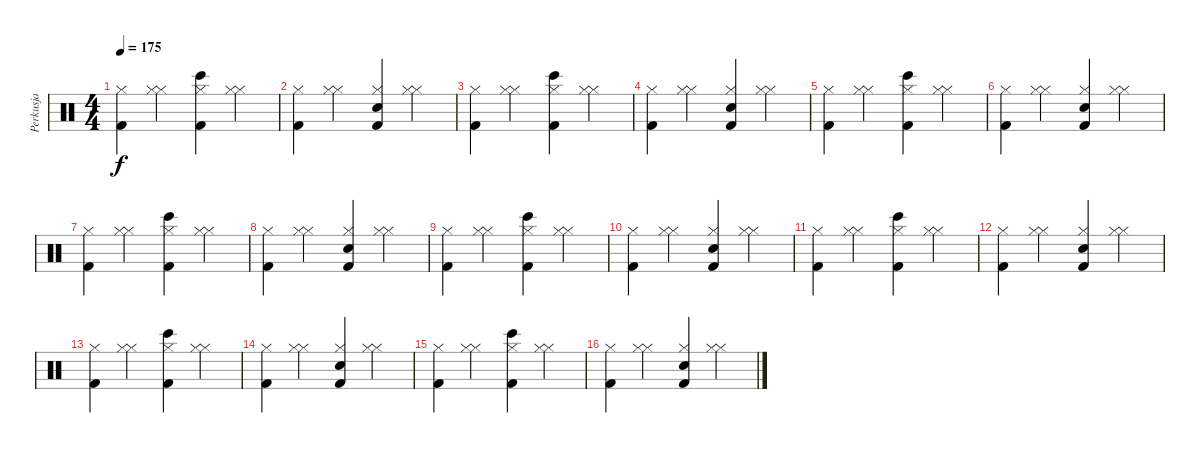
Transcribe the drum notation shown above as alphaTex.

\track ("Perkusja" "Perkusja") {instrument percussion}
\staff {score}
\articulation defaults
\ts (4 4)
\tempo 175
\clef neutral
\ks c
("Kick (hit) 2" "Hi-Hat (closed)").4{dy f} ("Hi-Hat (closed)" "Hi-Hat (closed)").4 ("Bongo High (hit)" "Kick (hit) 2" "Hi-Hat (closed)").4 ("Hi-Hat (closed)" "Hi-Hat (closed)").4 |
("Kick (hit) 2" "Hi-Hat (closed)").4 ("Hi-Hat (closed)" "Hi-Hat (closed)").4 ("Snare (hit) 2" "Kick (hit) 2" "Hi-Hat (closed)").4 ("Hi-Hat (closed)" "Hi-Hat (closed)").4 |
("Kick (hit) 2" "Hi-Hat (closed)").4 ("Hi-Hat (closed)" "Hi-Hat (closed)").4 ("Bongo High (hit)" "Kick (hit) 2" "Hi-Hat (closed)").4 ("Hi-Hat (closed)" "Hi-Hat (closed)").4 |
("Kick (hit) 2" "Hi-Hat (closed)").4 ("Hi-Hat (closed)" "Hi-Hat (closed)").4 ("Snare (hit) 2" "Kick (hit) 2" "Hi-Hat (closed)").4 ("Hi-Hat (closed)" "Hi-Hat (closed)").4 |
("Kick (hit) 2" "Hi-Hat (closed)").4 ("Hi-Hat (closed)" "Hi-Hat (closed)").4 ("Bongo High (hit)" "Kick (hit) 2" "Hi-Hat (closed)").4 ("Hi-Hat (closed)" "Hi-Hat (closed)").4 |
("Kick (hit) 2" "Hi-Hat (closed)").4 ("Hi-Hat (closed)" "Hi-Hat (closed)").4 ("Snare (hit) 2" "Kick (hit) 2" "Hi-Hat (closed)").4 ("Hi-Hat (closed)" "Hi-Hat (closed)").4 |
("Kick (hit) 2" "Hi-Hat (closed)").4 ("Hi-Hat (closed)" "Hi-Hat (closed)").4 ("Bongo High (hit)" "Kick (hit) 2" "Hi-Hat (closed)").4 ("Hi-Hat (closed)" "Hi-Hat (closed)").4 |
("Kick (hit) 2" "Hi-Hat (closed)").4 ("Hi-Hat (closed)" "Hi-Hat (closed)").4 ("Snare (hit) 2" "Kick (hit) 2" "Hi-Hat (closed)").4 ("Hi-Hat (closed)" "Hi-Hat (closed)").4 |
("Kick (hit) 2" "Hi-Hat (closed)").4 ("Hi-Hat (closed)" "Hi-Hat (closed)").4 ("Bongo High (hit)" "Kick (hit) 2" "Hi-Hat (closed)").4 ("Hi-Hat (closed)" "Hi-Hat (closed)").4 |
("Kick (hit) 2" "Hi-Hat (closed)").4 ("Hi-Hat (closed)" "Hi-Hat (closed)").4 ("Snare (hit) 2" "Kick (hit) 2" "Hi-Hat (closed)").4 ("Hi-Hat (closed)" "Hi-Hat (closed)").4 |
("Kick (hit) 2" "Hi-Hat (closed)").4 ("Hi-Hat (closed)" "Hi-Hat (closed)").4 ("Bongo High (hit)" "Kick (hit) 2" "Hi-Hat (closed)").4 ("Hi-Hat (closed)" "Hi-Hat (closed)").4 |
("Kick (hit) 2" "Hi-Hat (closed)").4 ("Hi-Hat (closed)" "Hi-Hat (closed)").4 ("Snare (hit) 2" "Kick (hit) 2" "Hi-Hat (closed)").4 ("Hi-Hat (closed)" "Hi-Hat (closed)").4 |
("Kick (hit) 2" "Hi-Hat (closed)").4 ("Hi-Hat (closed)" "Hi-Hat (closed)").4 ("Bongo High (hit)" "Kick (hit) 2" "Hi-Hat (closed)").4 ("Hi-Hat (closed)" "Hi-Hat (closed)").4 |
("Kick (hit) 2" "Hi-Hat (closed)").4 ("Hi-Hat (closed)" "Hi-Hat (closed)").4 ("Snare (hit) 2" "Kick (hit) 2" "Hi-Hat (closed)").4 ("Hi-Hat (closed)" "Hi-Hat (closed)").4 |
("Kick (hit) 2" "Hi-Hat (closed)").4 ("Hi-Hat (closed)" "Hi-Hat (closed)").4 ("Bongo High (hit)" "Kick (hit) 2" "Hi-Hat (closed)").4 ("Hi-Hat (closed)" "Hi-Hat (closed)").4 |
("Kick (hit) 2" "Hi-Hat (closed)").4 ("Hi-Hat (closed)" "Hi-Hat (closed)").4 ("Snare (hit) 2" "Kick (hit) 2" "Hi-Hat (closed)").4 ("Hi-Hat (closed)" "Hi-Hat (closed)").4
